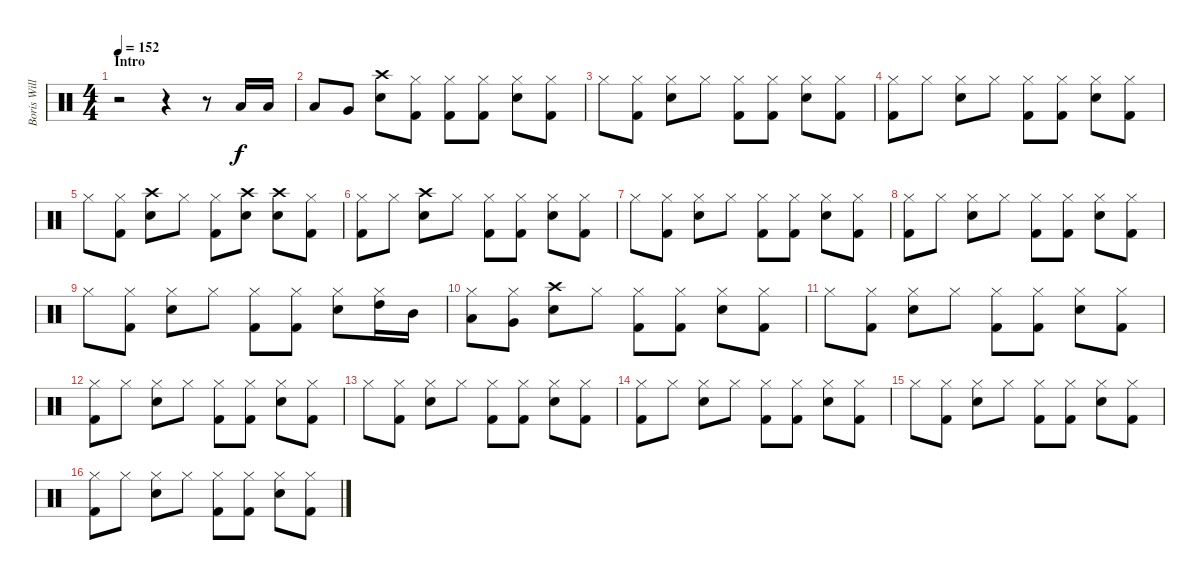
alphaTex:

\track ("Boris Williams (drums)" "Boris Will") {instrument percussion}
\staff {score}
\articulation defaults
\ts (4 4)
\section ("" "Intro")
\tempo 152
\clef neutral
\ks c
r.2{dy f} r.4 r.8 "Low Tom (hit)".16 "Low Tom (hit)".16 |
"Low Tom (hit)".8 "Very Low Tom (hit)".8 ("Snare (hit) 2" "Crash high (hit)").8 ("Kick (hit) 2" "Hi-Hat (closed)").8 ("Kick (hit) 2" "Hi-Hat (closed)").8 ("Kick (hit) 2" "Hi-Hat (closed)").8 ("Snare (hit) 2" "Hi-Hat (closed)").8 ("Kick (hit) 2" "Hi-Hat (closed)").8 |
"Hi-Hat (closed)".8 ("Kick (hit) 2" "Hi-Hat (closed)").8 ("Snare (hit) 2" "Hi-Hat (closed)").8 "Hi-Hat (closed)".8 ("Kick (hit) 2" "Hi-Hat (closed)").8 ("Kick (hit) 2" "Hi-Hat (closed)").8 ("Snare (hit) 2" "Hi-Hat (closed)").8 ("Kick (hit) 2" "Hi-Hat (closed)").8 |
("Kick (hit) 2" "Hi-Hat (closed)").8 "Hi-Hat (closed)".8 ("Snare (hit) 2" "Hi-Hat (closed)").8 "Hi-Hat (closed)".8 ("Kick (hit) 2" "Hi-Hat (closed)").8 ("Kick (hit) 2" "Hi-Hat (closed)").8 ("Snare (hit) 2" "Hi-Hat (closed)").8 ("Kick (hit) 2" "Hi-Hat (closed)").8 |
"Hi-Hat (closed)".8 ("Kick (hit) 2" "Hi-Hat (closed)").8 ("Crash high (hit)" "Snare (hit) 2").8 "Hi-Hat (closed)".8 ("Kick (hit) 2" "Hi-Hat (closed)").8 ("Crash high (hit)" "Snare (hit) 2").8 ("Crash high (hit)" "Snare (hit) 2").8 ("Kick (hit) 2" "Hi-Hat (closed)").8 |
("Kick (hit) 2" "Hi-Hat (closed)").8 "Hi-Hat (closed)".8 ("Snare (hit) 2" "Crash high (hit)").8 "Hi-Hat (closed)".8 ("Kick (hit) 2" "Hi-Hat (closed)").8 ("Kick (hit) 2" "Hi-Hat (closed)").8 ("Snare (hit) 2" "Hi-Hat (closed)").8 ("Kick (hit) 2" "Hi-Hat (closed)").8 |
"Hi-Hat (closed)".8 ("Kick (hit) 2" "Hi-Hat (closed)").8 ("Snare (hit) 2" "Hi-Hat (closed)").8 "Hi-Hat (closed)".8 ("Kick (hit) 2" "Hi-Hat (closed)").8 ("Kick (hit) 2" "Hi-Hat (closed)").8 ("Snare (hit) 2" "Hi-Hat (closed)").8 ("Kick (hit) 2" "Hi-Hat (closed)").8 |
("Kick (hit) 2" "Hi-Hat (closed)").8 "Hi-Hat (closed)".8 ("Snare (hit) 2" "Hi-Hat (closed)").8 "Hi-Hat (closed)".8 ("Kick (hit) 2" "Hi-Hat (closed)").8 ("Kick (hit) 2" "Hi-Hat (closed)").8 ("Snare (hit) 2" "Hi-Hat (closed)").8 ("Kick (hit) 2" "Hi-Hat (closed)").8 |
"Hi-Hat (closed)".8 ("Kick (hit) 2" "Hi-Hat (closed)").8 ("Snare (hit) 2" "Hi-Hat (closed)").8 "Hi-Hat (closed)".8 ("Kick (hit) 2" "Hi-Hat (closed)").8 ("Kick (hit) 2" "Hi-Hat (closed)").8 ("Snare (hit) 2" "Hi-Hat (closed)").8 ("High Tom (hit)" "Hi-Hat (closed)").16 "Mid Tom (hit)".16 |
("Low Tom (hit)" "Hi-Hat (closed)").8 ("Very Low Tom (hit)" "Hi-Hat (closed)").8 ("Snare (hit) 2" "Crash high (hit)").8 "Hi-Hat (closed)".8 ("Kick (hit) 2" "Hi-Hat (closed)").8 ("Kick (hit) 2" "Hi-Hat (closed)").8 ("Snare (hit) 2" "Hi-Hat (closed)").8 ("Kick (hit) 2" "Hi-Hat (closed)").8 |
"Hi-Hat (closed)".8 ("Kick (hit) 2" "Hi-Hat (closed)").8 ("Snare (hit) 2" "Hi-Hat (closed)").8 "Hi-Hat (closed)".8 ("Kick (hit) 2" "Hi-Hat (closed)").8 ("Kick (hit) 2" "Hi-Hat (closed)").8 ("Snare (hit) 2" "Hi-Hat (closed)").8 ("Kick (hit) 2" "Hi-Hat (closed)").8 |
("Kick (hit) 2" "Hi-Hat (closed)").8 "Hi-Hat (closed)".8 ("Snare (hit) 2" "Hi-Hat (closed)").8 "Hi-Hat (closed)".8 ("Kick (hit) 2" "Hi-Hat (closed)").8 ("Kick (hit) 2" "Hi-Hat (closed)").8 ("Snare (hit) 2" "Hi-Hat (closed)").8 ("Kick (hit) 2" "Hi-Hat (closed)").8 |
"Hi-Hat (closed)".8 ("Kick (hit) 2" "Hi-Hat (closed)").8 ("Snare (hit) 2" "Hi-Hat (closed)").8 "Hi-Hat (closed)".8 ("Kick (hit) 2" "Hi-Hat (closed)").8 ("Kick (hit) 2" "Hi-Hat (closed)").8 ("Snare (hit) 2" "Hi-Hat (closed)").8 ("Kick (hit) 2" "Hi-Hat (closed)").8 |
("Kick (hit) 2" "Hi-Hat (closed)").8 "Hi-Hat (closed)".8 ("Snare (hit) 2" "Hi-Hat (closed)").8 "Hi-Hat (closed)".8 ("Kick (hit) 2" "Hi-Hat (closed)").8 ("Kick (hit) 2" "Hi-Hat (closed)").8 ("Snare (hit) 2" "Hi-Hat (closed)").8 ("Kick (hit) 2" "Hi-Hat (closed)").8 |
"Hi-Hat (closed)".8 ("Kick (hit) 2" "Hi-Hat (closed)").8 ("Snare (hit) 2" "Hi-Hat (closed)").8 "Hi-Hat (closed)".8 ("Kick (hit) 2" "Hi-Hat (closed)").8 ("Kick (hit) 2" "Hi-Hat (closed)").8 ("Snare (hit) 2" "Hi-Hat (closed)").8 ("Kick (hit) 2" "Hi-Hat (closed)").8 |
("Kick (hit) 2" "Hi-Hat (closed)").8 "Hi-Hat (closed)".8 ("Snare (hit) 2" "Hi-Hat (closed)").8 "Hi-Hat (closed)".8 ("Kick (hit) 2" "Hi-Hat (closed)").8 ("Kick (hit) 2" "Hi-Hat (closed)").8 ("Snare (hit) 2" "Hi-Hat (closed)").8 ("Kick (hit) 2" "Hi-Hat (closed)").8
